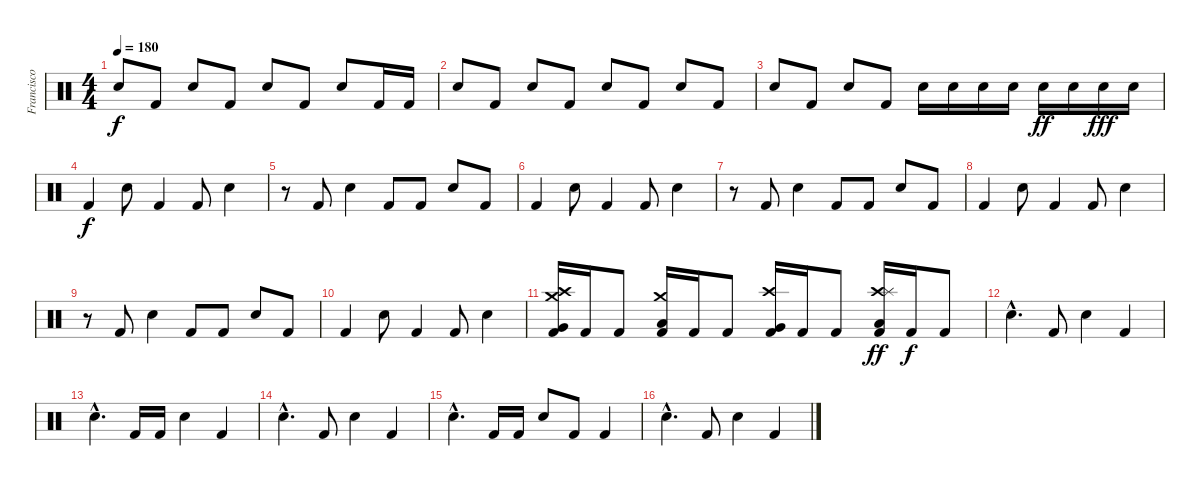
\track ("Francisco Izquierdo (Percusión)" "Francisco ") {instrument percussion}
\staff {score}
\articulation defaults
\ts (4 4)
\tempo 180
\clef neutral
\ks c "Electric Snare (hit)".8{dy f} "Kick (hit) 2".8 "Electric Snare (hit)".8 "Kick (hit) 2".8 "Electric Snare (hit)".8 "Kick (hit) 2".8 "Electric Snare (hit)".8 "Kick (hit) 2".16 "Kick (hit) 2".16
|
"Electric Snare (hit)".8 "Kick (hit) 2".8 "Electric Snare (hit)".8 "Kick (hit) 2".8 "Electric Snare (hit)".8 "Kick (hit) 2".8 "Electric Snare (hit)".8 "Kick (hit) 2".8 |
"Electric Snare (hit)".8 "Kick (hit) 2".8 "Electric Snare (hit)".8 "Kick (hit) 2".8 "Electric Snare (hit)".16 "Electric Snare (hit)".16 "Electric Snare (hit)".16 "Electric Snare (hit)".16 "Electric Snare (hit)".16{dy ff} "Electric Snare (hit)".16 "Electric Snare (hit)".16{dy fff} "Electric Snare (hit)".16 |
"Kick (hit) 2".4{dy f} "Electric Snare (hit)".8 "Kick (hit) 2".4 "Kick (hit) 2".8 "Electric Snare (hit)".4 |
r.8 "Kick (hit) 2".8 "Electric Snare (hit)".4 "Kick (hit) 2".8 "Kick (hit) 2".8 "Electric Snare (hit)".8 "Kick (hit) 2".8 |
"Kick (hit) 2".4 "Electric Snare (hit)".8 "Kick (hit) 2".4 "Kick (hit) 2".8 "Electric Snare (hit)".4 |
r.8 "Kick (hit) 2".8 "Electric Snare (hit)".4 "Kick (hit) 2".8 "Kick (hit) 2".8 "Electric Snare (hit)".8 "Kick (hit) 2".8 |
"Kick (hit) 2".4 "Electric Snare (hit)".8 "Kick (hit) 2".4 "Kick (hit) 2".8 "Electric Snare (hit)".4 |
r.8 "Kick (hit) 2".8 "Electric Snare (hit)".4 "Kick (hit) 2".8 "Kick (hit) 2".8 "Electric Snare (hit)".8 "Kick (hit) 2".8 |
"Kick (hit) 2".4 "Electric Snare (hit)".8 "Kick (hit) 2".4 "Kick (hit) 2".8 "Electric Snare (hit)".4 |
("Crash high (hit)" "Crash medium (hit)" "Very Low Tom (hit)" "Kick (hit) 2").16 "Kick (hit) 2".16 "Kick (hit) 2".8 ("Crash medium (hit)" "Low Tom (hit)" "Kick (hit) 2").16 "Kick (hit) 2".16 "Kick (hit) 2".8 ("Crash high (hit)" "Very Low Tom (hit)" "Kick (hit) 2").16 "Kick (hit) 2".16 "Kick (hit) 2".8 ("Crash high (hit)" "Splash (hit)" "Low Floor Tom (hit)" "Kick (hit) 2").16{dy ff} "Kick (hit) 2".16{dy f} "Kick (hit) 2".8 |
"Electric Snare (hit)"{hac}.4{d} "Kick (hit) 2".8 "Electric Snare (hit)".4 "Kick (hit) 2".4 |
"Electric Snare (hit)"{hac}.4{d} "Kick (hit) 2".16 "Kick (hit) 2".16 "Electric Snare (hit)".4 "Kick (hit) 2".4 |
"Electric Snare (hit)"{hac}.4{d} "Kick (hit) 2".8 "Electric Snare (hit)".4 "Kick (hit) 2".4 |
"Electric Snare (hit)"{hac}.4{d} "Kick (hit) 2".16 "Kick (hit) 2".16 "Electric Snare (hit)".8 "Kick (hit) 2".8 "Kick (hit) 2".4 |
"Electric Snare (hit)"{hac}.4{d} "Kick (hit) 2".8 "Electric Snare (hit)".4 "Kick (hit) 2".4
